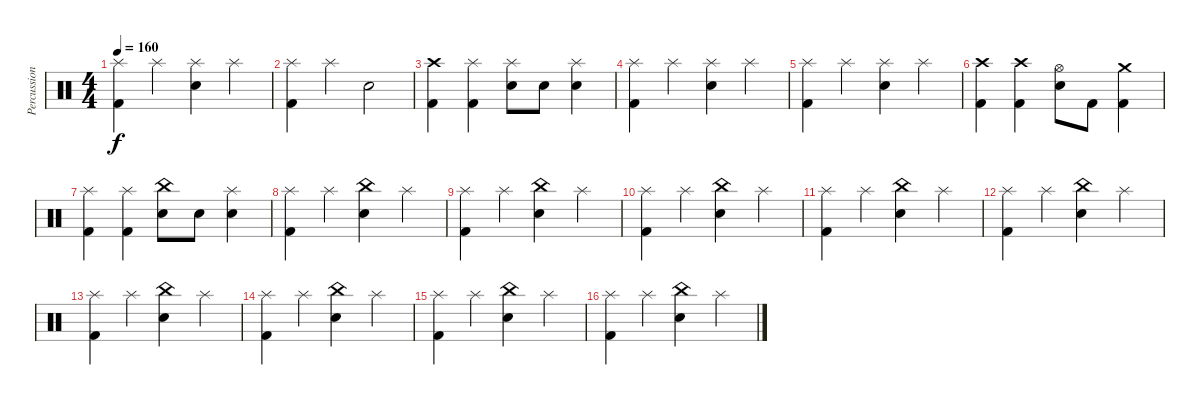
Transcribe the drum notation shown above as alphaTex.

\track ("Percussion" "Percussion") {instrument percussion}
\staff {score}
\articulation defaults
\ts (4 4)
\tempo 160
\clef neutral
\ks c
("Splash (hit)" "Kick (hit) 2").4{dy f} "Splash (hit)".4 ("Splash (hit)" "Electric Snare (hit)").4 "Splash (hit)".4 |
("Splash (hit)" "Kick (hit) 2").4 "Splash (hit)".4 "Electric Snare (hit)".2 |
("Crash high (hit)" "Kick (hit) 2").4 ("Splash (hit)" "Kick (hit) 2").4 ("Splash (hit)" "Electric Snare (hit)").8 "Electric Snare (hit)".8 ("Splash (hit)" "Electric Snare (hit)").4 |
("Splash (hit)" "Kick (hit) 2").4 "Splash (hit)".4 ("Splash (hit)" "Electric Snare (hit)").4 "Splash (hit)".4 |
("Splash (hit)" "Kick (hit) 2").4 "Splash (hit)".4 ("Splash (hit)" "Electric Snare (hit)").4 "Splash (hit)".4 |
("Crash high (hit)" "Kick (hit) 2").4 ("Crash high (hit)" "Kick (hit) 2").4 ("Hi-Hat (open)" "Electric Snare (hit)").8 "Kick (hit) 2".8 ("Crash medium (hit)" "Kick (hit) 2").4 |
("Splash (hit)" "Kick (hit) 2").4 ("Splash (hit)" "Kick (hit) 2").4 ("China (hit)" "Electric Snare (hit)").8 "Electric Snare (hit)".8 ("Splash (hit)" "Electric Snare (hit)").4 |
("Splash (hit)" "Kick (hit) 2").4 "Splash (hit)".4 ("China (hit)" "Electric Snare (hit)").4 "Splash (hit)".4 |
("Splash (hit)" "Kick (hit) 2").4 "Splash (hit)".4 ("China (hit)" "Electric Snare (hit)").4 "Splash (hit)".4 |
("Splash (hit)" "Kick (hit) 2").4 "Splash (hit)".4 ("China (hit)" "Electric Snare (hit)").4 "Splash (hit)".4 |
("Splash (hit)" "Kick (hit) 2").4 "Splash (hit)".4 ("China (hit)" "Electric Snare (hit)").4 "Splash (hit)".4 |
("Splash (hit)" "Kick (hit) 2").4 "Splash (hit)".4 ("China (hit)" "Electric Snare (hit)").4 "Splash (hit)".4 |
("Splash (hit)" "Kick (hit) 2").4 "Splash (hit)".4 ("China (hit)" "Electric Snare (hit)").4 "Splash (hit)".4 |
("Splash (hit)" "Kick (hit) 2").4 "Splash (hit)".4 ("China (hit)" "Electric Snare (hit)").4 "Splash (hit)".4 |
("Splash (hit)" "Kick (hit) 2").4 "Splash (hit)".4 ("China (hit)" "Electric Snare (hit)").4 "Splash (hit)".4 |
("Splash (hit)" "Kick (hit) 2").4 "Splash (hit)".4 ("China (hit)" "Electric Snare (hit)").4 "Splash (hit)".4
